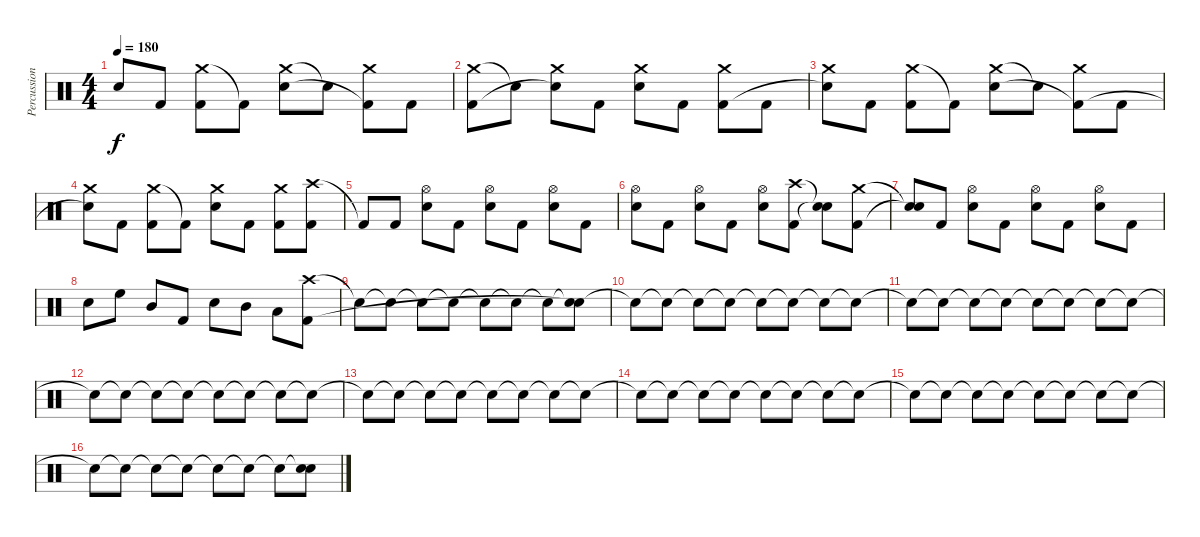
\track ("Percussion" "Percussion") {instrument percussion}
\staff {score}
\articulation defaults
\ts (4 4)
\tempo 180
\clef neutral
\ks c "Snare (hit)"{t}.8{dy f} "Kick (hit) 2".8
("Crash medium (hit)" "Kick (hit) 2").8 "Kick (hit) 2"{t}.8 ("Crash medium (hit)" "Snare (hit) 2").8 "Snare (hit)"{t}.8 ("Crash medium (hit)" "Kick (hit) 2"{t}).8 "Kick (hit) 2".8 |
("Crash medium (hit)" "Kick (hit) 2").8 "Snare (hit)"{t}.8 ("Crash medium (hit)" "Snare (hit)"{t}).8 "Kick (hit) 2".8 ("Crash medium (hit)" "Snare (hit) 2").8 "Kick (hit) 2".8 ("Crash medium (hit)" "Kick (hit) 2").8 "Kick (hit) 2".8 |
("Crash medium (hit)" "Snare (hit)"{t}).8 "Kick (hit) 2".8 ("Crash medium (hit)" "Kick (hit) 2").8 "Kick (hit) 2"{t}.8 ("Crash medium (hit)" "Snare (hit) 2").8 "Snare (hit)"{t}.8 ("Crash medium (hit)" "Kick (hit) 2"{t}).8 "Kick (hit) 2".8 |
("Crash medium (hit)" "Snare (hit)"{t}).8 "Kick (hit) 2".8 ("Crash medium (hit)" "Kick (hit) 2").8 "Kick (hit) 2"{t}.8 ("Crash medium (hit)" "Snare (hit) 2").8 "Kick (hit) 2".8 ("Crash medium (hit)" "Kick (hit) 2").8 ("Crash high (hit)" "Kick (hit) 2").8 |
"Kick (hit) 2"{t}.8 "Kick (hit) 2".8 ("Hi-Hat (open)" "Snare (hit) 2").8 "Kick (hit) 2".8 ("Hi-Hat (open)" "Snare (hit) 2").8 "Kick (hit) 2".8 ("Hi-Hat (open)" "Snare (hit) 2").8 "Kick (hit) 2".8 |
("Hi-Hat (open)" "Snare (hit) 2").8 "Kick (hit) 2".8 ("Hi-Hat (open)" "Snare (hit) 2").8 "Kick (hit) 2".8 ("Hi-Hat (open)" "Snare (hit) 2").8 ("Crash high (hit)" "Kick (hit) 2").8 ("Snare (hit)"{t} "Snare (hit)"{t}).8 ("Crash medium (hit)" "Kick (hit) 2").8 |
("Snare (hit)"{t} "Snare (hit)"{t}).8 "Kick (hit) 2".8 ("Hi-Hat (open)" "Snare (hit) 2").8 "Kick (hit) 2".8 ("Hi-Hat (open)" "Snare (hit) 2").8 "Kick (hit) 2".8 ("Hi-Hat (open)" "Snare (hit) 2").8 "Kick (hit) 2".8 |
"Snare (hit) 2".8 "High Floor Tom (hit)".8 "Mid Tom (hit)".8 "Kick (hit) 2".8 "Snare (hit) 2".8 "Mid Tom (hit)".8 "Low Floor Tom (hit)".8 ("Crash high (hit)" "Kick (hit) 2").8 |
"Snare (hit)"{t}.8 "Snare (hit)"{t}.8 "Snare (hit)"{t}.8 "Snare (hit)"{t}.8 "Snare (hit)"{t}.8 "Snare (hit)"{t}.8 "Snare (hit)"{t}.8 ("Snare (hit)"{t} "Snare (hit)"{t}).8 |
"Snare (hit)"{t}.8 "Snare (hit)"{t}.8 "Snare (hit)"{t}.8 "Snare (hit)"{t}.8 "Snare (hit)"{t}.8 "Snare (hit)"{t}.8 "Snare (hit)"{t}.8 "Snare (hit)"{t}.8 |
"Snare (hit)"{t}.8 "Snare (hit)"{t}.8 "Snare (hit)"{t}.8 "Snare (hit)"{t}.8 "Snare (hit)"{t}.8 "Snare (hit)"{t}.8 "Snare (hit)"{t}.8 "Snare (hit)"{t}.8 |
"Snare (hit)"{t}.8 "Snare (hit)"{t}.8 "Snare (hit)"{t}.8 "Snare (hit)"{t}.8 "Snare (hit)"{t}.8 "Snare (hit)"{t}.8 "Snare (hit)"{t}.8 "Snare (hit)"{t}.8 |
"Snare (hit)"{t}.8 "Snare (hit)"{t}.8 "Snare (hit)"{t}.8 "Snare (hit)"{t}.8 "Snare (hit)"{t}.8 "Snare (hit)"{t}.8 "Snare (hit)"{t}.8 "Snare (hit)"{t}.8 |
"Snare (hit)"{t}.8 "Snare (hit)"{t}.8 "Snare (hit)"{t}.8 "Snare (hit)"{t}.8 "Snare (hit)"{t}.8 "Snare (hit)"{t}.8 "Snare (hit)"{t}.8 "Snare (hit)"{t}.8 |
"Snare (hit)"{t}.8 "Snare (hit)"{t}.8 "Snare (hit)"{t}.8 "Snare (hit)"{t}.8 "Snare (hit)"{t}.8 "Snare (hit)"{t}.8 "Snare (hit)"{t}.8 "Snare (hit)"{t}.8 |
"Snare (hit)"{t}.8 "Snare (hit)"{t}.8 "Snare (hit)"{t}.8 "Snare (hit)"{t}.8 "Snare (hit)"{t}.8 "Snare (hit)"{t}.8 "Snare (hit)"{t}.8 ("Snare (hit)"{t} "Snare (hit)").8
